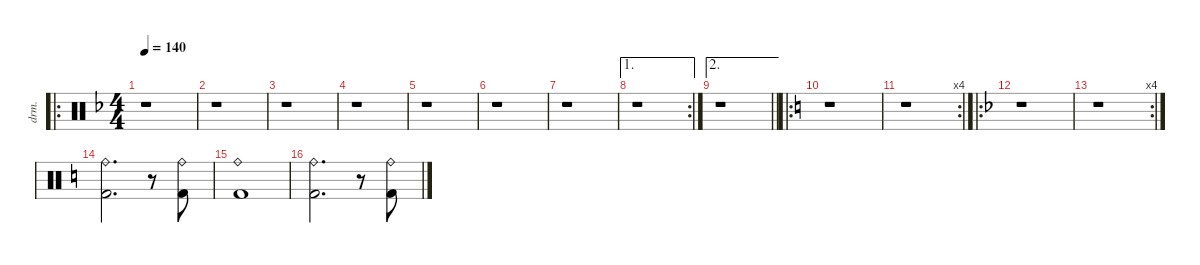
\defaultSystemsLayout 4
\hideDynamics
\bracketExtendMode nobrackets
\otherSystemsTrackNameOrientation horizontal
\track ("Drums" "drm.") {defaultSystemsLayout 4 instrument percussion}
\staff {score}
\articulation defaults
\ro
\ts (4 4)
\beaming (8 2 2 2 2)
\tempo 140
\clef neutral
\ks dminor
r.1{dy p beam Down} |
r.1{beam Down} |
r.1{beam Down} |
r.1{beam Down} |
r.1{beam Down} |
r.1{beam Down} |
r.1{beam Down} |
\ae 1
\rc 2
r.1{beam Down} |
\ae 2
\barLineRight lightlight
r.1{beam Down} |
\ro
\ks aminor
r.1{beam Down} |
\rc 4
r.1{beam Down} |
\ro
\ks dminor
r.1{beam Down} |
\rc 4
r.1{beam Down} |
\ks aminor
("Ride (bell)" "Kick (hit) 2").2{d beam Down} r.8{beam Down} ("Ride (bell)" "Kick (hit) 2").8{beam Down} |
("Ride (bell)" "Kick (hit) 2").1{beam Down} |
("Ride (bell)" "Kick (hit) 2").2{d beam Down} r.8{beam Down} ("Ride (bell)" "Kick (hit) 2").8{beam Down}
